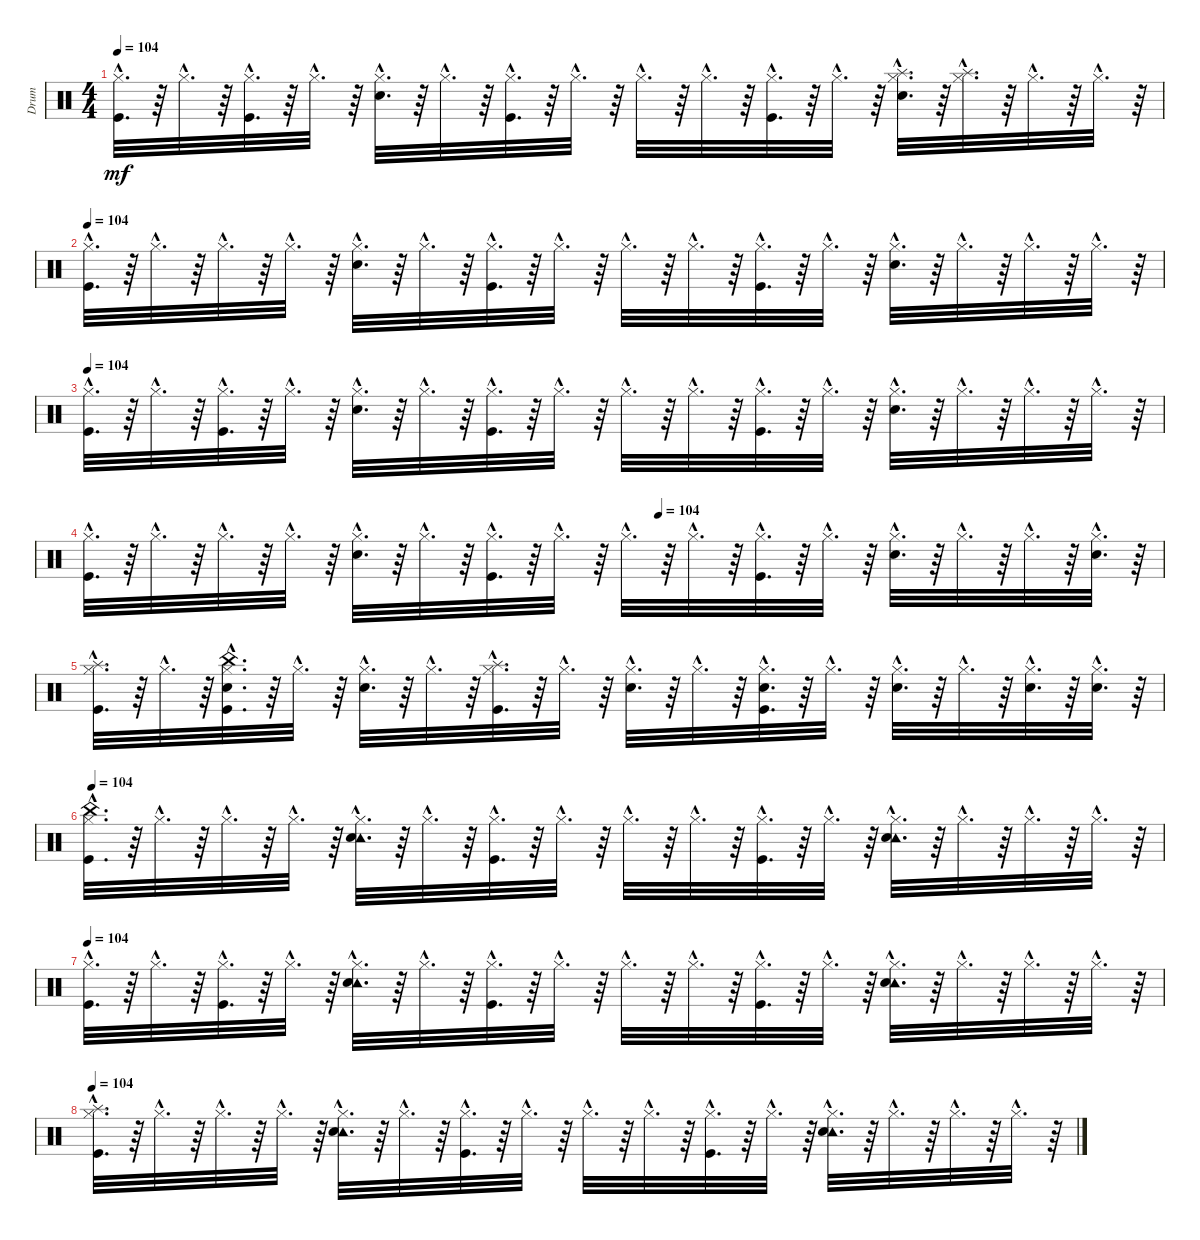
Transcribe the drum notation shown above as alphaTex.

\track ("Drum" "Drum") {instrument percussion}
\staff {score}
\articulation defaults
\ts (4 4)
\tempo 104
\clef neutral
\ks c
("Hi-Hat (closed)"{hac} "Kick (hit)"{hac}).32{d dy mf} r.64 "Hi-Hat (closed)"{hac}.32{d} r.64 ("Kick (hit)"{hac} "Hi-Hat (closed)"{hac}).32{d} r.64 "Hi-Hat (closed)"{hac}.32{d} r.64 ("Hi-Hat (closed)"{hac} "Snare (hit) 2"{hac}).32{d} r.64 "Hi-Hat (closed)"{hac}.32{d} r.64 ("Hi-Hat (closed)"{hac} "Kick (hit)"{hac}).32{d} r.64 "Hi-Hat (closed)"{hac}.32{d} r.64 "Hi-Hat (closed)"{hac}.32{d} r.64 "Hi-Hat (closed)"{hac}.32{d} r.64 ("Hi-Hat (closed)"{hac} "Kick (hit)"{hac}).32{d} r.64 "Hi-Hat (closed)"{hac}.32{d} r.64 ("Hi-Hat (closed)"{hac} "Snare (hit) 2"{hac} "Splash (hit)"{hac}).32{d} r.64 ("Hi-Hat (closed)"{hac} "Splash (hit)"{hac}).32{d} r.64 "Hi-Hat (closed)"{hac}.32{d} r.64 "Hi-Hat (closed)"{hac}.32{d} r.64 |
\tempo 104
("Kick (hit)"{hac} "Hi-Hat (closed)"{hac}).32{d} r.64 "Hi-Hat (closed)"{hac}.32{d} r.64 "Hi-Hat (closed)"{hac}.32{d} r.64 "Hi-Hat (closed)"{hac}.32{d} r.64 ("Snare (hit) 2"{hac} "Hi-Hat (closed)"{hac}).32{d} r.64 "Hi-Hat (closed)"{hac}.32{d} r.64 ("Kick (hit)"{hac} "Hi-Hat (closed)"{hac}).32{d} r.64 "Hi-Hat (closed)"{hac}.32{d} r.64 "Hi-Hat (closed)"{hac}.32{d} r.64 "Hi-Hat (closed)"{hac}.32{d} r.64 ("Kick (hit)"{hac} "Hi-Hat (closed)"{hac}).32{d} r.64 "Hi-Hat (closed)"{hac}.32{d} r.64 ("Snare (hit) 2"{hac} "Hi-Hat (closed)"{hac}).32{d} r.64 "Hi-Hat (closed)"{hac}.32{d} r.64 "Hi-Hat (closed)"{hac}.32{d} r.64 "Hi-Hat (closed)"{hac}.32{d} r.64 |
\tempo 104
("Hi-Hat (closed)"{hac} "Kick (hit)"{hac}).32{d} r.64 "Hi-Hat (closed)"{hac}.32{d} r.64 ("Kick (hit)"{hac} "Hi-Hat (closed)"{hac}).32{d} r.64 "Hi-Hat (closed)"{hac}.32{d} r.64 ("Hi-Hat (closed)"{hac} "Snare (hit) 2"{hac}).32{d} r.64 "Hi-Hat (closed)"{hac}.32{d} r.64 ("Hi-Hat (closed)"{hac} "Kick (hit)"{hac}).32{d} r.64 "Hi-Hat (closed)"{hac}.32{d} r.64 "Hi-Hat (closed)"{hac}.32{d} r.64 "Hi-Hat (closed)"{hac}.32{d} r.64 ("Hi-Hat (closed)"{hac} "Kick (hit)"{hac}).32{d} r.64 "Hi-Hat (closed)"{hac}.32{d} r.64 ("Hi-Hat (closed)"{hac} "Snare (hit) 2"{hac}).32{d} r.64 "Hi-Hat (closed)"{hac}.32{d} r.64 "Hi-Hat (closed)"{hac}.32{d} r.64 "Hi-Hat (closed)"{hac}.32{d} r.64 |
\tempo (104 0.53125)
("Hi-Hat (closed)"{hac} "Kick (hit)"{hac}).32{d} r.64 "Hi-Hat (closed)"{hac}.32{d} r.64 "Hi-Hat (closed)"{hac}.32{d} r.64 "Hi-Hat (closed)"{hac}.32{d} r.64 ("Hi-Hat (closed)"{hac} "Snare (hit) 2"{hac}).32{d} r.64 "Hi-Hat (closed)"{hac}.32{d} r.64 ("Hi-Hat (closed)"{hac} "Kick (hit)"{hac}).32{d} r.64 "Hi-Hat (closed)"{hac}.32{d} r.64 "Hi-Hat (closed)"{hac}.32{d} r.64 "Hi-Hat (closed)"{hac}.32{d} r.64 ("Hi-Hat (closed)"{hac} "Kick (hit)"{hac}).32{d} r.64 "Hi-Hat (closed)"{hac}.32{d} r.64 ("Hi-Hat (closed)"{hac} "Snare (hit) 2"{hac}).32{d} r.64 "Hi-Hat (closed)"{hac}.32{d} r.64 "Hi-Hat (closed)"{hac}.32{d} r.64 ("Hi-Hat (closed)"{hac} "Snare (hit) 2"{hac}).32{d} r.64 |
("Kick (hit)"{hac} "Hi-Hat (closed)"{hac} "Splash (hit)"{hac}).32{d} r.64 "Hi-Hat (closed)"{hac}.32{d} r.64 ("Hi-Hat (closed)"{hac} "Kick (hit)"{hac} "Snare (hit) 2"{hac} "China (hit)"{hac}).32{d} r.64 "Hi-Hat (closed)"{hac}.32{d} r.64 ("Hi-Hat (closed)"{hac} "Snare (hit) 2"{hac}).32{d} r.64 "Hi-Hat (closed)"{hac}.32{d} r.64 ("Kick (hit)"{hac} "Hi-Hat (closed)"{hac} "Splash (hit)"{hac}).32{d} r.64 "Hi-Hat (closed)"{hac}.32{d} r.64 ("Hi-Hat (closed)"{hac} "Snare (hit) 2"{hac}).32{d} r.64 "Hi-Hat (closed)"{hac}.32{d} r.64 ("Kick (hit)"{hac} "Hi-Hat (closed)"{hac} "Snare (hit) 2"{hac}).32{d} r.64 "Hi-Hat (closed)"{hac}.32{d} r.64 ("Snare (hit) 2"{hac} "Hi-Hat (closed)"{hac}).32{d} r.64 "Hi-Hat (closed)"{hac}.32{d} r.64 ("Hi-Hat (closed)"{hac} "Snare (hit) 2"{hac}).32{d} r.64 ("Hi-Hat (closed)"{hac} "Snare (hit) 2"{hac}).32{d} r.64 |
\tempo 104
("Kick (hit)"{hac} "China (hit)"{hac} "Hi-Hat (closed)"{hac}).32{d} r.64 "Hi-Hat (closed)"{hac}.32{d} r.64 "Hi-Hat (closed)"{hac}.32{d} r.64 "Hi-Hat (closed)"{hac}.32{d} r.64 ("Tambourine (hit)"{hac} "Snare (hit) 2"{hac} "Hi-Hat (closed)"{hac}).32{d} r.64 "Hi-Hat (closed)"{hac}.32{d} r.64 ("Kick (hit)"{hac} "Hi-Hat (closed)"{hac}).32{d} r.64 "Hi-Hat (closed)"{hac}.32{d} r.64 "Hi-Hat (closed)"{hac}.32{d} r.64 "Hi-Hat (closed)"{hac}.32{d} r.64 ("Kick (hit)"{hac} "Hi-Hat (closed)"{hac}).32{d} r.64 "Hi-Hat (closed)"{hac}.32{d} r.64 ("Tambourine (hit)"{hac} "Snare (hit) 2"{hac} "Hi-Hat (closed)"{hac}).32{d} r.64 "Hi-Hat (closed)"{hac}.32{d} r.64 "Hi-Hat (closed)"{hac}.32{d} r.64 "Hi-Hat (closed)"{hac}.32{d} r.64 |
\tempo 104
("Hi-Hat (closed)"{hac} "Kick (hit)"{hac}).32{d} r.64 "Hi-Hat (closed)"{hac}.32{d} r.64 ("Kick (hit)"{hac} "Hi-Hat (closed)"{hac}).32{d} r.64 "Hi-Hat (closed)"{hac}.32{d} r.64 ("Tambourine (hit)"{hac} "Hi-Hat (closed)"{hac} "Snare (hit) 2"{hac}).32{d} r.64 "Hi-Hat (closed)"{hac}.32{d} r.64 ("Hi-Hat (closed)"{hac} "Kick (hit)"{hac}).32{d} r.64 "Hi-Hat (closed)"{hac}.32{d} r.64 "Hi-Hat (closed)"{hac}.32{d} r.64 "Hi-Hat (closed)"{hac}.32{d} r.64 ("Hi-Hat (closed)"{hac} "Kick (hit)"{hac}).32{d} r.64 "Hi-Hat (closed)"{hac}.32{d} r.64 ("Tambourine (hit)"{hac} "Hi-Hat (closed)"{hac} "Snare (hit) 2"{hac}).32{d} r.64 "Hi-Hat (closed)"{hac}.32{d} r.64 "Hi-Hat (closed)"{hac}.32{d} r.64 "Hi-Hat (closed)"{hac}.32{d} r.64 |
\tempo 104
("Hi-Hat (closed)"{hac} "Kick (hit)"{hac} "Splash (hit)"{hac}).32{d} r.64 "Hi-Hat (closed)"{hac}.32{d} r.64 "Hi-Hat (closed)"{hac}.32{d} r.64 "Hi-Hat (closed)"{hac}.32{d} r.64 ("Tambourine (hit)"{hac} "Hi-Hat (closed)"{hac} "Snare (hit) 2"{hac}).32{d} r.64 "Hi-Hat (closed)"{hac}.32{d} r.64 ("Hi-Hat (closed)"{hac} "Kick (hit)"{hac}).32{d} r.64 "Hi-Hat (closed)"{hac}.32{d} r.64 "Hi-Hat (closed)"{hac}.32{d} r.64 "Hi-Hat (closed)"{hac}.32{d} r.64 ("Hi-Hat (closed)"{hac} "Kick (hit)"{hac}).32{d} r.64 "Hi-Hat (closed)"{hac}.32{d} r.64 ("Tambourine (hit)"{hac} "Hi-Hat (closed)"{hac} "Snare (hit) 2"{hac}).32{d} r.64 "Hi-Hat (closed)"{hac}.32{d} r.64 "Hi-Hat (closed)"{hac}.32{d} r.64 "Hi-Hat (closed)"{hac}.32{d} r.64
